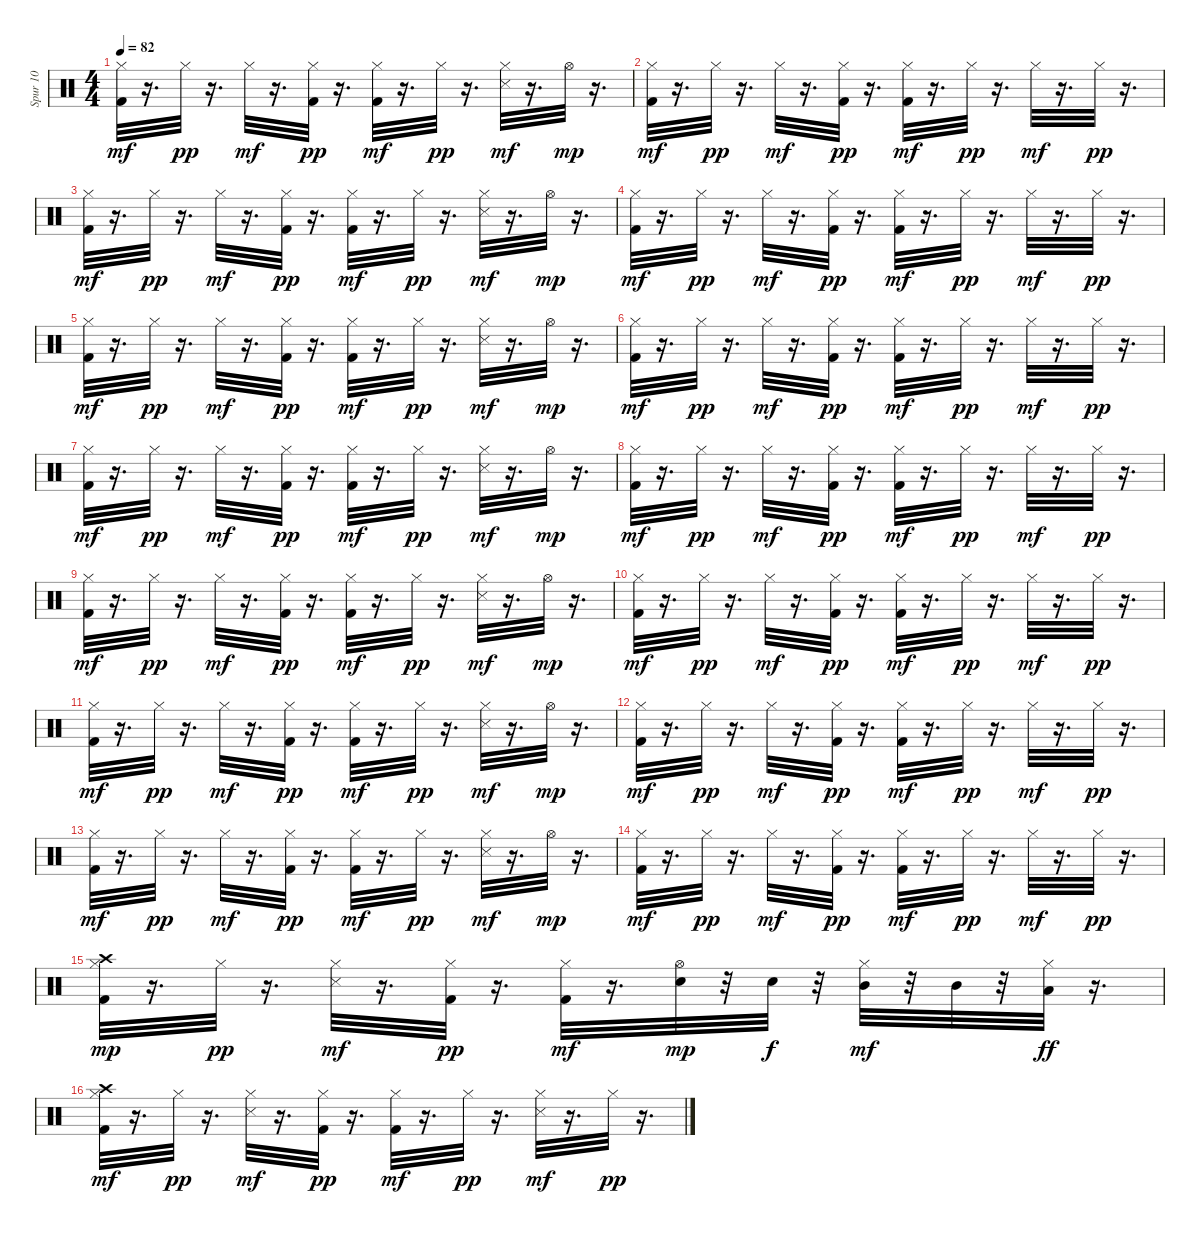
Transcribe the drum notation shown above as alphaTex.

\track ("Spur 10" "Spur 10") {instrument percussion}
\staff {score}
\articulation defaults
\ts (4 4)
\tempo 82
\clef neutral
\ks c
("Kick (hit) 2" "Hi-Hat (closed)").32{dy mf} r.16{d} "Hi-Hat (closed)".32{dy pp} r.16{d} "Hi-Hat (closed)".32{dy mf} r.16{d} ("Kick (hit) 2" "Hi-Hat (closed)").32{dy pp} r.16{d} ("Kick (hit) 2" "Hi-Hat (closed)").32{dy mf} r.16{d} "Hi-Hat (closed)".32{dy pp} r.16{d} ("Snare (side stick) 3" "Hi-Hat (closed)").32{dy mf} r.16{d} "Hi-Hat (open)".32{dy mp} r.16{d} |
("Kick (hit) 2" "Hi-Hat (closed)").32{dy mf} r.16{d} "Hi-Hat (closed)".32{dy pp} r.16{d} "Hi-Hat (closed)".32{dy mf} r.16{d} ("Kick (hit) 2" "Hi-Hat (closed)").32{dy pp} r.16{d} ("Kick (hit) 2" "Hi-Hat (closed)").32{dy mf} r.16{d} "Hi-Hat (closed)".32{dy pp} r.16{d} "Hi-Hat (closed)".32{dy mf} r.16{d} "Hi-Hat (closed)".32{dy pp} r.16{d} |
("Kick (hit) 2" "Hi-Hat (closed)").32{dy mf} r.16{d} "Hi-Hat (closed)".32{dy pp} r.16{d} "Hi-Hat (closed)".32{dy mf} r.16{d} ("Kick (hit) 2" "Hi-Hat (closed)").32{dy pp} r.16{d} ("Kick (hit) 2" "Hi-Hat (closed)").32{dy mf} r.16{d} "Hi-Hat (closed)".32{dy pp} r.16{d} ("Snare (side stick) 3" "Hi-Hat (closed)").32{dy mf} r.16{d} "Hi-Hat (open)".32{dy mp} r.16{d} |
("Kick (hit) 2" "Hi-Hat (closed)").32{dy mf} r.16{d} "Hi-Hat (closed)".32{dy pp} r.16{d} "Hi-Hat (closed)".32{dy mf} r.16{d} ("Kick (hit) 2" "Hi-Hat (closed)").32{dy pp} r.16{d} ("Kick (hit) 2" "Hi-Hat (closed)").32{dy mf} r.16{d} "Hi-Hat (closed)".32{dy pp} r.16{d} "Hi-Hat (closed)".32{dy mf} r.16{d} "Hi-Hat (closed)".32{dy pp} r.16{d} |
("Kick (hit) 2" "Hi-Hat (closed)").32{dy mf} r.16{d} "Hi-Hat (closed)".32{dy pp} r.16{d} "Hi-Hat (closed)".32{dy mf} r.16{d} ("Kick (hit) 2" "Hi-Hat (closed)").32{dy pp} r.16{d} ("Kick (hit) 2" "Hi-Hat (closed)").32{dy mf} r.16{d} "Hi-Hat (closed)".32{dy pp} r.16{d} ("Snare (side stick) 3" "Hi-Hat (closed)").32{dy mf} r.16{d} "Hi-Hat (open)".32{dy mp} r.16{d} |
("Kick (hit) 2" "Hi-Hat (closed)").32{dy mf} r.16{d} "Hi-Hat (closed)".32{dy pp} r.16{d} "Hi-Hat (closed)".32{dy mf} r.16{d} ("Kick (hit) 2" "Hi-Hat (closed)").32{dy pp} r.16{d} ("Kick (hit) 2" "Hi-Hat (closed)").32{dy mf} r.16{d} "Hi-Hat (closed)".32{dy pp} r.16{d} "Hi-Hat (closed)".32{dy mf} r.16{d} "Hi-Hat (closed)".32{dy pp} r.16{d} |
("Kick (hit) 2" "Hi-Hat (closed)").32{dy mf} r.16{d} "Hi-Hat (closed)".32{dy pp} r.16{d} "Hi-Hat (closed)".32{dy mf} r.16{d} ("Kick (hit) 2" "Hi-Hat (closed)").32{dy pp} r.16{d} ("Kick (hit) 2" "Hi-Hat (closed)").32{dy mf} r.16{d} "Hi-Hat (closed)".32{dy pp} r.16{d} ("Snare (side stick) 3" "Hi-Hat (closed)").32{dy mf} r.16{d} "Hi-Hat (open)".32{dy mp} r.16{d} |
("Kick (hit) 2" "Hi-Hat (closed)").32{dy mf} r.16{d} "Hi-Hat (closed)".32{dy pp} r.16{d} "Hi-Hat (closed)".32{dy mf} r.16{d} ("Kick (hit) 2" "Hi-Hat (closed)").32{dy pp} r.16{d} ("Kick (hit) 2" "Hi-Hat (closed)").32{dy mf} r.16{d} "Hi-Hat (closed)".32{dy pp} r.16{d} "Hi-Hat (closed)".32{dy mf} r.16{d} "Hi-Hat (closed)".32{dy pp} r.16{d} |
("Kick (hit) 2" "Hi-Hat (closed)").32{dy mf} r.16{d} "Hi-Hat (closed)".32{dy pp} r.16{d} "Hi-Hat (closed)".32{dy mf} r.16{d} ("Kick (hit) 2" "Hi-Hat (closed)").32{dy pp} r.16{d} ("Kick (hit) 2" "Hi-Hat (closed)").32{dy mf} r.16{d} "Hi-Hat (closed)".32{dy pp} r.16{d} ("Snare (side stick) 3" "Hi-Hat (closed)").32{dy mf} r.16{d} "Hi-Hat (open)".32{dy mp} r.16{d} |
("Kick (hit) 2" "Hi-Hat (closed)").32{dy mf} r.16{d} "Hi-Hat (closed)".32{dy pp} r.16{d} "Hi-Hat (closed)".32{dy mf} r.16{d} ("Kick (hit) 2" "Hi-Hat (closed)").32{dy pp} r.16{d} ("Kick (hit) 2" "Hi-Hat (closed)").32{dy mf} r.16{d} "Hi-Hat (closed)".32{dy pp} r.16{d} "Hi-Hat (closed)".32{dy mf} r.16{d} "Hi-Hat (closed)".32{dy pp} r.16{d} |
("Kick (hit) 2" "Hi-Hat (closed)").32{dy mf} r.16{d} "Hi-Hat (closed)".32{dy pp} r.16{d} "Hi-Hat (closed)".32{dy mf} r.16{d} ("Kick (hit) 2" "Hi-Hat (closed)").32{dy pp} r.16{d} ("Kick (hit) 2" "Hi-Hat (closed)").32{dy mf} r.16{d} "Hi-Hat (closed)".32{dy pp} r.16{d} ("Snare (side stick) 3" "Hi-Hat (closed)").32{dy mf} r.16{d} "Hi-Hat (open)".32{dy mp} r.16{d} |
("Kick (hit) 2" "Hi-Hat (closed)").32{dy mf} r.16{d} "Hi-Hat (closed)".32{dy pp} r.16{d} "Hi-Hat (closed)".32{dy mf} r.16{d} ("Kick (hit) 2" "Hi-Hat (closed)").32{dy pp} r.16{d} ("Kick (hit) 2" "Hi-Hat (closed)").32{dy mf} r.16{d} "Hi-Hat (closed)".32{dy pp} r.16{d} "Hi-Hat (closed)".32{dy mf} r.16{d} "Hi-Hat (closed)".32{dy pp} r.16{d} |
("Kick (hit) 2" "Hi-Hat (closed)").32{dy mf} r.16{d} "Hi-Hat (closed)".32{dy pp} r.16{d} "Hi-Hat (closed)".32{dy mf} r.16{d} ("Kick (hit) 2" "Hi-Hat (closed)").32{dy pp} r.16{d} ("Kick (hit) 2" "Hi-Hat (closed)").32{dy mf} r.16{d} "Hi-Hat (closed)".32{dy pp} r.16{d} ("Snare (side stick) 3" "Hi-Hat (closed)").32{dy mf} r.16{d} "Hi-Hat (open)".32{dy mp} r.16{d} |
("Kick (hit) 2" "Hi-Hat (closed)").32{dy mf} r.16{d} "Hi-Hat (closed)".32{dy pp} r.16{d} "Hi-Hat (closed)".32{dy mf} r.16{d} ("Kick (hit) 2" "Hi-Hat (closed)").32{dy pp} r.16{d} ("Kick (hit) 2" "Hi-Hat (closed)").32{dy mf} r.16{d} "Hi-Hat (closed)".32{dy pp} r.16{d} "Hi-Hat (closed)".32{dy mf} r.16{d} "Hi-Hat (closed)".32{dy pp} r.16{d} |
("Kick (hit) 2" "Hi-Hat (closed)" "Crash high (hit)").32{dy mp} r.16{d} "Hi-Hat (closed)".32{dy pp} r.16{d} ("Snare (side stick) 3" "Hi-Hat (closed)").32{dy mf} r.16{d} ("Kick (hit) 2" "Hi-Hat (closed)").32{dy pp} r.16{d} ("Kick (hit) 2" "Hi-Hat (closed)").32{dy mf} r.16{d} ("Electric Snare (hit)" "Hi-Hat (open)").32{dy mp} r.32 "Electric Snare (hit)".32{dy f} r.32 ("Hi-Hat (closed)" "Mid Tom (hit)").32{dy mf} r.32 "Mid Tom (hit)".32 r.32 ("Hi-Hat (closed)" "Low Tom (hit)").32{dy ff} r.16{d} |
("Crash high (hit)" "Kick (hit) 2" "Hi-Hat (closed)").32{dy mf} r.16{d} "Hi-Hat (closed)".32{dy pp} r.16{d} ("Snare (side stick) 3" "Hi-Hat (closed)").32{dy mf} r.16{d} ("Kick (hit) 2" "Hi-Hat (closed)").32{dy pp} r.16{d} ("Kick (hit) 2" "Hi-Hat (closed)").32{dy mf} r.16{d} "Hi-Hat (closed)".32{dy pp} r.16{d} ("Snare (side stick) 3" "Hi-Hat (closed)").32{dy mf} r.16{d} "Hi-Hat (closed)".32{dy pp} r.16{d}
